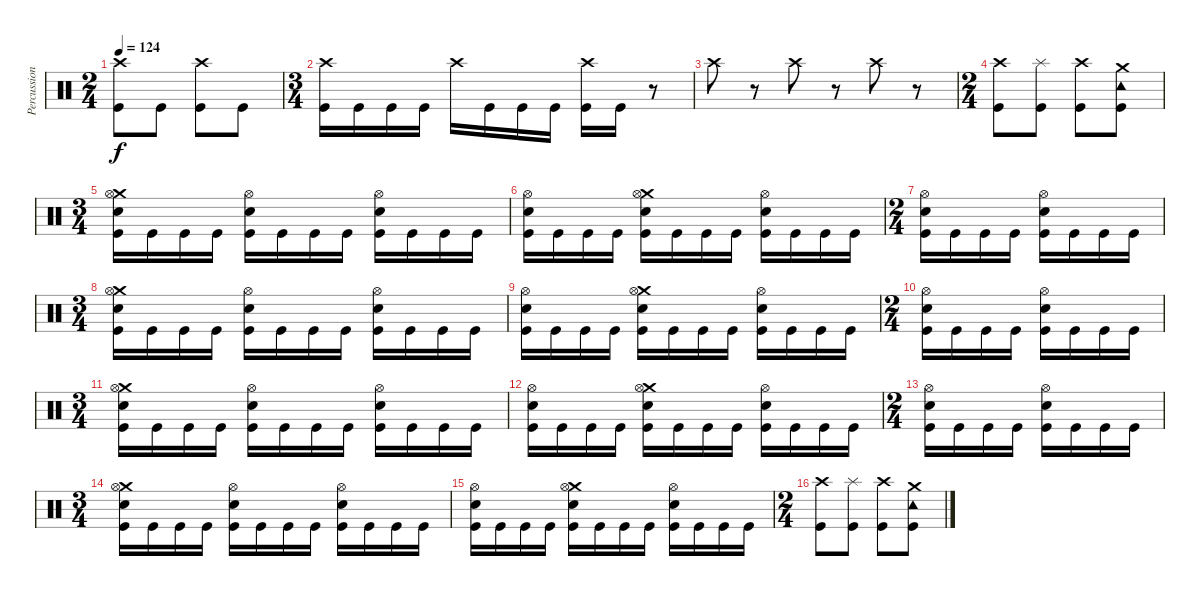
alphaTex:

\track ("Percussion" "Percussion") {instrument percussion}
\staff {score}
\articulation defaults
\ts (2 4)
\tempo 124
\clef neutral
\ks c
("Crash high (hit)" "Kick (hit)").8{dy f} "Kick (hit)".8 ("Crash high (hit)" "Kick (hit)").8 "Kick (hit)".8 |
\ts (3 4)
("Crash high (hit)" "Kick (hit)").16 "Kick (hit)".16 "Kick (hit)".16 "Kick (hit)".16 "Crash high (hit)".16 "Kick (hit)".16 "Kick (hit)".16 "Kick (hit)".16 ("Crash high (hit)" "Kick (hit)").16 "Kick (hit)".16 r.8 |
"Crash high (hit)".8 r.8 "Crash high (hit)".8 r.8 "Crash high (hit)".8 r.8 |
\ts (2 4)
("Crash high (hit)" "Kick (hit)").8 ("Splash (hit)" "Kick (hit)").8 ("Crash high (hit)" "Kick (hit)").8 ("Tambourine (hit)" "Crash medium (hit)" "Kick (hit)").8 |
\ts (3 4)
("Crash medium (hit)" "Electric Snare (hit)" "Hi-Hat (open)" "Kick (hit)").16 "Kick (hit)".16 "Kick (hit)".16 "Kick (hit)".16 ("Electric Snare (hit)" "Hi-Hat (open)" "Kick (hit)").16 "Kick (hit)".16 "Kick (hit)".16 "Kick (hit)".16 ("Electric Snare (hit)" "Hi-Hat (open)" "Kick (hit)").16 "Kick (hit)".16 "Kick (hit)".16 "Kick (hit)".16 |
("Hi-Hat (open)" "Electric Snare (hit)" "Kick (hit)").16 "Kick (hit)".16 "Kick (hit)".16 "Kick (hit)".16 ("Crash medium (hit)" "Hi-Hat (open)" "Electric Snare (hit)" "Kick (hit)").16 "Kick (hit)".16 "Kick (hit)".16 "Kick (hit)".16 ("Hi-Hat (open)" "Electric Snare (hit)" "Kick (hit)").16 "Kick (hit)".16 "Kick (hit)".16 "Kick (hit)".16 |
\ts (2 4)
("Hi-Hat (open)" "Electric Snare (hit)" "Kick (hit)").16 "Kick (hit)".16 "Kick (hit)".16 "Kick (hit)".16 ("Hi-Hat (open)" "Electric Snare (hit)" "Kick (hit)").16 "Kick (hit)".16 "Kick (hit)".16 "Kick (hit)".16 |
\ts (3 4)
("Crash medium (hit)" "Hi-Hat (open)" "Electric Snare (hit)" "Kick (hit)").16 "Kick (hit)".16 "Kick (hit)".16 "Kick (hit)".16 ("Hi-Hat (open)" "Electric Snare (hit)" "Kick (hit)").16 "Kick (hit)".16 "Kick (hit)".16 "Kick (hit)".16 ("Hi-Hat (open)" "Electric Snare (hit)" "Kick (hit)").16 "Kick (hit)".16 "Kick (hit)".16 "Kick (hit)".16 |
("Hi-Hat (open)" "Electric Snare (hit)" "Kick (hit)").16 "Kick (hit)".16 "Kick (hit)".16 "Kick (hit)".16 ("Crash medium (hit)" "Hi-Hat (open)" "Electric Snare (hit)" "Kick (hit)").16 "Kick (hit)".16 "Kick (hit)".16 "Kick (hit)".16 ("Hi-Hat (open)" "Electric Snare (hit)" "Kick (hit)").16 "Kick (hit)".16 "Kick (hit)".16 "Kick (hit)".16 |
\ts (2 4)
("Hi-Hat (open)" "Electric Snare (hit)" "Kick (hit)").16 "Kick (hit)".16 "Kick (hit)".16 "Kick (hit)".16 ("Hi-Hat (open)" "Electric Snare (hit)" "Kick (hit)").16 "Kick (hit)".16 "Kick (hit)".16 "Kick (hit)".16 |
\ts (3 4)
("Crash medium (hit)" "Electric Snare (hit)" "Hi-Hat (open)" "Kick (hit)").16 "Kick (hit)".16 "Kick (hit)".16 "Kick (hit)".16 ("Electric Snare (hit)" "Hi-Hat (open)" "Kick (hit)").16 "Kick (hit)".16 "Kick (hit)".16 "Kick (hit)".16 ("Electric Snare (hit)" "Hi-Hat (open)" "Kick (hit)").16 "Kick (hit)".16 "Kick (hit)".16 "Kick (hit)".16 |
("Hi-Hat (open)" "Electric Snare (hit)" "Kick (hit)").16 "Kick (hit)".16 "Kick (hit)".16 "Kick (hit)".16 ("Crash medium (hit)" "Hi-Hat (open)" "Electric Snare (hit)" "Kick (hit)").16 "Kick (hit)".16 "Kick (hit)".16 "Kick (hit)".16 ("Hi-Hat (open)" "Electric Snare (hit)" "Kick (hit)").16 "Kick (hit)".16 "Kick (hit)".16 "Kick (hit)".16 |
\ts (2 4)
("Hi-Hat (open)" "Electric Snare (hit)" "Kick (hit)").16 "Kick (hit)".16 "Kick (hit)".16 "Kick (hit)".16 ("Hi-Hat (open)" "Electric Snare (hit)" "Kick (hit)").16 "Kick (hit)".16 "Kick (hit)".16 "Kick (hit)".16 |
\ts (3 4)
("Crash medium (hit)" "Hi-Hat (open)" "Electric Snare (hit)" "Kick (hit)").16 "Kick (hit)".16 "Kick (hit)".16 "Kick (hit)".16 ("Hi-Hat (open)" "Electric Snare (hit)" "Kick (hit)").16 "Kick (hit)".16 "Kick (hit)".16 "Kick (hit)".16 ("Hi-Hat (open)" "Electric Snare (hit)" "Kick (hit)").16 "Kick (hit)".16 "Kick (hit)".16 "Kick (hit)".16 |
("Hi-Hat (open)" "Electric Snare (hit)" "Kick (hit)").16 "Kick (hit)".16 "Kick (hit)".16 "Kick (hit)".16 ("Crash medium (hit)" "Hi-Hat (open)" "Electric Snare (hit)" "Kick (hit)").16 "Kick (hit)".16 "Kick (hit)".16 "Kick (hit)".16 ("Hi-Hat (open)" "Electric Snare (hit)" "Kick (hit)").16 "Kick (hit)".16 "Kick (hit)".16 "Kick (hit)".16 |
\ts (2 4)
("Crash high (hit)" "Kick (hit)").8 ("Splash (hit)" "Kick (hit)").8 ("Crash high (hit)" "Kick (hit)").8 ("Tambourine (hit)" "Crash medium (hit)" "Kick (hit)").8
